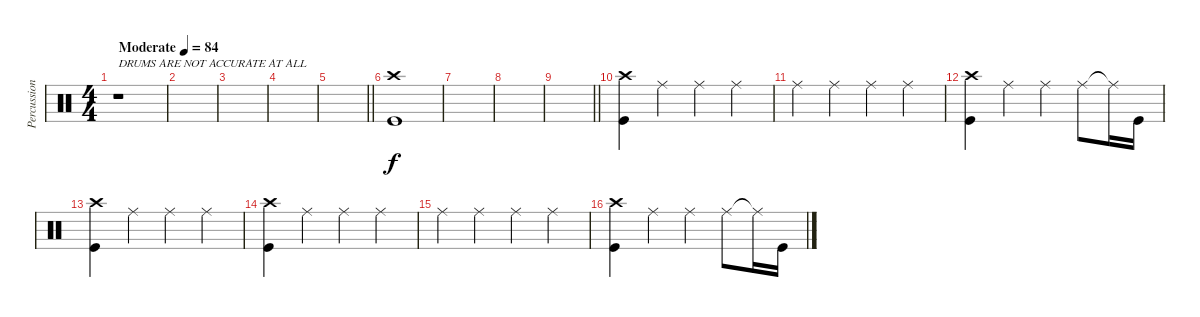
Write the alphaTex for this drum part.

\track ("Percussions" "Percussion") {instrument percussion}
\staff {score}
\articulation defaults
\ts (4 4)
\tempo (84 "Moderate")
\clef neutral
\ks c
r.1{txt "DRUMS ARE NOT ACCURATE AT ALL" dy f} |
|
|
|
\barLineRight lightlight
|
\section ("" "")
("Crash high (hit)" "Kick (hit)").1 |
|
|
\barLineRight lightlight
|
\section ("" "")
("Crash high (hit)" "Kick (hit)").4 "Ride (middle)".4 "Ride (middle)".4 "Ride (middle)".4 |
"Ride (middle)".4 "Ride (middle)".4 "Ride (middle)".4 "Ride (middle)".4 |
("Crash high (hit)" "Kick (hit)").4 "Ride (middle)".4 "Ride (middle)".4 "Ride (middle)".8 "Ride (middle)"{t}.16 "Kick (hit)".16 |
("Crash high (hit)" "Kick (hit)").4 "Ride (middle)".4 "Ride (middle)".4 "Ride (middle)".4 |
("Crash high (hit)" "Kick (hit)").4 "Ride (middle)".4 "Ride (middle)".4 "Ride (middle)".4 |
"Ride (middle)".4 "Ride (middle)".4 "Ride (middle)".4 "Ride (middle)".4 |
("Crash high (hit)" "Kick (hit)").4 "Ride (middle)".4 "Ride (middle)".4 "Ride (middle)".8 "Ride (middle)"{t}.16 "Kick (hit)".16
